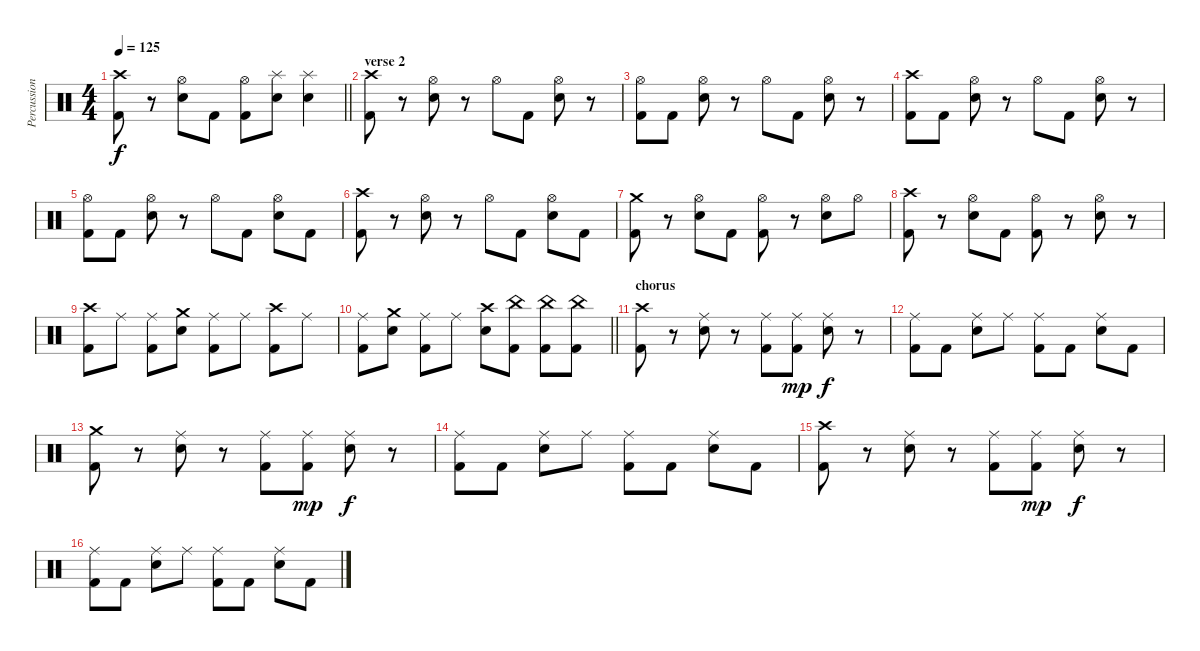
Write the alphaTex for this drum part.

\track ("Percussion" "Percussion") {instrument percussion}
\staff {score}
\articulation defaults
\ts (4 4)
\tempo 125
\clef neutral
\barLineRight lightlight
\ks c
("Crash high (hit)" "Kick (hit) 2").8{dy f} r.8 ("Hi-Hat (open)" "Snare (hit) 2").8 "Kick (hit) 2".8 ("Hi-Hat (open)" "Kick (hit) 2").8 ("Splash (hit)" "Snare (hit) 2").8 ("Splash (hit)" "Snare (hit) 2").4 |
\section ("" "verse 2")
("Crash high (hit)" "Kick (hit) 2").8 r.8 ("Hi-Hat (open)" "Snare (hit) 2").8 r.8 "Hi-Hat (open)".8 "Kick (hit) 2".8 ("Hi-Hat (open)" "Snare (hit) 2").8 r.8 |
("Hi-Hat (open)" "Kick (hit) 2").8 "Kick (hit) 2".8 ("Hi-Hat (open)" "Snare (hit) 2").8 r.8 "Hi-Hat (open)".8 "Kick (hit) 2".8 ("Hi-Hat (open)" "Snare (hit) 2").8 r.8 |
("Crash high (hit)" "Kick (hit) 2").8 "Kick (hit) 2".8 ("Hi-Hat (open)" "Snare (hit) 2").8 r.8 "Hi-Hat (open)".8 "Kick (hit) 2".8 ("Hi-Hat (open)" "Snare (hit) 2").8 r.8 |
("Hi-Hat (open)" "Kick (hit) 2").8 "Kick (hit) 2".8 ("Hi-Hat (open)" "Snare (hit) 2").8 r.8 "Hi-Hat (open)".8 "Kick (hit) 2".8 ("Hi-Hat (open)" "Snare (hit) 2").8 "Kick (hit) 2".8 |
("Crash high (hit)" "Kick (hit) 2").8 r.8 ("Hi-Hat (open)" "Snare (hit) 2").8 r.8 "Hi-Hat (open)".8 "Kick (hit) 2".8 ("Hi-Hat (open)" "Snare (hit) 2").8 "Kick (hit) 2".8 |
("Crash medium (hit)" "Kick (hit) 2").8 r.8 ("Hi-Hat (open)" "Snare (hit) 2").8 "Kick (hit) 2".8 ("Hi-Hat (open)" "Kick (hit) 2").8 r.8 ("Hi-Hat (open)" "Snare (hit) 2").8 "Hi-Hat (open)".8 |
("Crash high (hit)" "Kick (hit) 2").8 r.8 ("Hi-Hat (open)" "Snare (hit) 2").8 "Kick (hit) 2".8 ("Hi-Hat (open)" "Kick (hit) 2").8 r.8 ("Hi-Hat (open)" "Snare (hit) 2").8 r.8 |
("Crash high (hit)" "Kick (hit) 2").8 "Ride (middle)".8 ("Ride (middle)" "Kick (hit) 2").8 ("Crash medium (hit)" "Snare (hit) 2").8 ("Ride (middle)" "Kick (hit) 2").8 "Ride (middle)".8 ("Crash high (hit)" "Kick (hit) 2").8 "Ride (middle)".8 |
\barLineRight lightlight
("Ride (middle)" "Kick (hit) 2").8 ("Crash medium (hit)" "Snare (hit) 2").8 ("Ride (middle)" "Kick (hit) 2").8 "Ride (middle)".8 ("Crash high (hit)" "Snare (hit) 2").8 ("China (hit)" "Kick (hit) 2").8 ("China (hit)" "Kick (hit) 2").8 ("China (hit)" "Kick (hit) 2").8 |
\section ("" "chorus")
("Crash high (hit)" "Kick (hit) 2").8 r.8 ("Ride (middle)" "Snare (hit) 2").8 r.8 ("Ride (middle)" "Kick (hit) 2").8 ("Ride (middle)" "Kick (hit) 2").8{dy mp} ("Ride (middle)" "Snare (hit) 2").8{dy f} r.8 |
("Ride (middle)" "Kick (hit) 2").8 "Kick (hit) 2".8 ("Ride (middle)" "Snare (hit) 2").8 "Ride (middle)".8 ("Ride (middle)" "Kick (hit) 2").8 "Kick (hit) 2".8 ("Ride (middle)" "Snare (hit) 2").8 "Kick (hit) 2".8 |
("Crash medium (hit)" "Kick (hit) 2").8 r.8 ("Ride (middle)" "Snare (hit) 2").8 r.8 ("Ride (middle)" "Kick (hit) 2").8 ("Ride (middle)" "Kick (hit) 2").8{dy mp} ("Ride (middle)" "Snare (hit) 2").8{dy f} r.8 |
("Ride (middle)" "Kick (hit) 2").8 "Kick (hit) 2".8 ("Ride (middle)" "Snare (hit) 2").8 "Ride (middle)".8 ("Ride (middle)" "Kick (hit) 2").8 "Kick (hit) 2".8 ("Ride (middle)" "Snare (hit) 2").8 "Kick (hit) 2".8 |
("Crash high (hit)" "Kick (hit) 2").8 r.8 ("Ride (middle)" "Snare (hit) 2").8 r.8 ("Ride (middle)" "Kick (hit) 2").8 ("Ride (middle)" "Kick (hit) 2").8{dy mp} ("Ride (middle)" "Snare (hit) 2").8{dy f} r.8 |
("Ride (middle)" "Kick (hit) 2").8 "Kick (hit) 2".8 ("Ride (middle)" "Snare (hit) 2").8 "Ride (middle)".8 ("Ride (middle)" "Kick (hit) 2").8 "Kick (hit) 2".8 ("Ride (middle)" "Snare (hit) 2").8 "Kick (hit) 2".8
